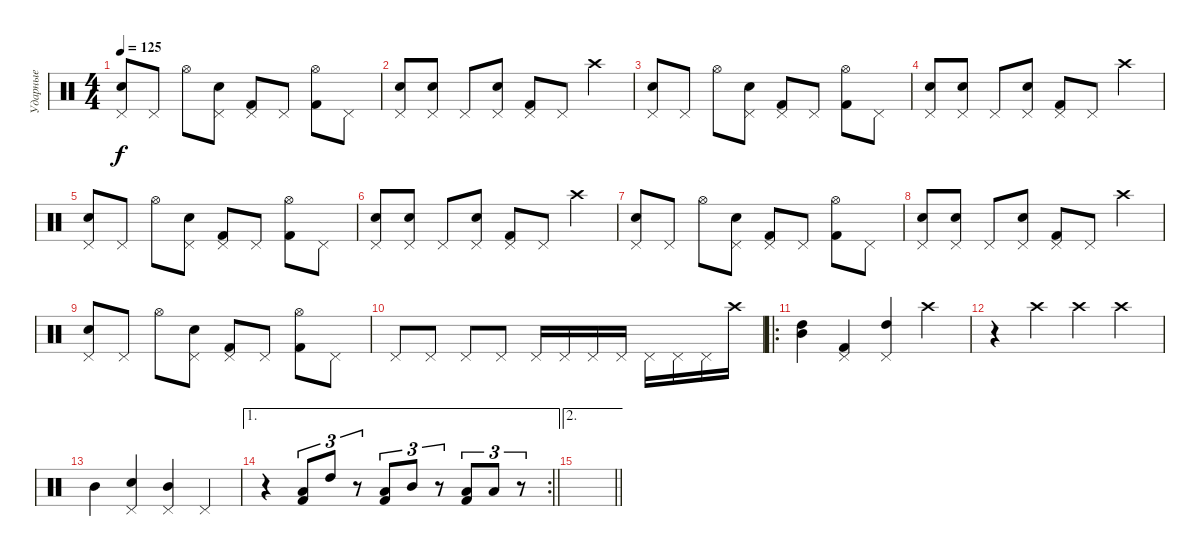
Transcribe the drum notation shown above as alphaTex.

\track ("Ударные" "Ударные") {instrument percussion}
\staff {score}
\articulation defaults
\ts (4 4)
\tempo 125
\clef neutral
\ks c
("Pedal Hi-Hat (hit)" "Snare (hit) 2").8{dy f} "Pedal Hi-Hat (hit)".8 "Hi-Hat (open)".8 ("Pedal Hi-Hat (hit)" "Snare (hit) 2").8 ("Pedal Hi-Hat (hit)" "Kick (hit) 2").8 "Pedal Hi-Hat (hit)".8 ("Hi-Hat (open)" "Kick (hit) 2").8 "Pedal Hi-Hat (hit)".8 |
("Pedal Hi-Hat (hit)" "Snare (hit) 2").8 ("Pedal Hi-Hat (hit)" "Snare (hit) 2").8 "Pedal Hi-Hat (hit)".8 ("Pedal Hi-Hat (hit)" "Snare (hit) 2").8 ("Pedal Hi-Hat (hit)" "Kick (hit) 2").8 "Pedal Hi-Hat (hit)".8 "Crash high (hit)".4 |
("Pedal Hi-Hat (hit)" "Snare (hit) 2").8 "Pedal Hi-Hat (hit)".8 "Hi-Hat (open)".8 ("Pedal Hi-Hat (hit)" "Snare (hit) 2").8 ("Pedal Hi-Hat (hit)" "Kick (hit) 2").8 "Pedal Hi-Hat (hit)".8 ("Hi-Hat (open)" "Kick (hit) 2").8 "Pedal Hi-Hat (hit)".8 |
("Pedal Hi-Hat (hit)" "Snare (hit) 2").8 ("Pedal Hi-Hat (hit)" "Snare (hit) 2").8 "Pedal Hi-Hat (hit)".8 ("Pedal Hi-Hat (hit)" "Snare (hit) 2").8 ("Pedal Hi-Hat (hit)" "Kick (hit) 2").8 "Pedal Hi-Hat (hit)".8 "Crash high (hit)".4 |
("Pedal Hi-Hat (hit)" "Snare (hit) 2").8 "Pedal Hi-Hat (hit)".8 "Hi-Hat (open)".8 ("Pedal Hi-Hat (hit)" "Snare (hit) 2").8 ("Pedal Hi-Hat (hit)" "Kick (hit) 2").8 "Pedal Hi-Hat (hit)".8 ("Hi-Hat (open)" "Kick (hit) 2").8 "Pedal Hi-Hat (hit)".8 |
("Pedal Hi-Hat (hit)" "Snare (hit) 2").8 ("Pedal Hi-Hat (hit)" "Snare (hit) 2").8 "Pedal Hi-Hat (hit)".8 ("Pedal Hi-Hat (hit)" "Snare (hit) 2").8 ("Pedal Hi-Hat (hit)" "Kick (hit) 2").8 "Pedal Hi-Hat (hit)".8 "Crash high (hit)".4 |
("Pedal Hi-Hat (hit)" "Snare (hit) 2").8 "Pedal Hi-Hat (hit)".8 "Hi-Hat (open)".8 ("Pedal Hi-Hat (hit)" "Snare (hit) 2").8 ("Pedal Hi-Hat (hit)" "Kick (hit) 2").8 "Pedal Hi-Hat (hit)".8 ("Hi-Hat (open)" "Kick (hit) 2").8 "Pedal Hi-Hat (hit)".8 |
("Pedal Hi-Hat (hit)" "Snare (hit) 2").8 ("Pedal Hi-Hat (hit)" "Snare (hit) 2").8 "Pedal Hi-Hat (hit)".8 ("Pedal Hi-Hat (hit)" "Snare (hit) 2").8 ("Pedal Hi-Hat (hit)" "Kick (hit) 2").8 "Pedal Hi-Hat (hit)".8 "Crash high (hit)".4 |
("Pedal Hi-Hat (hit)" "Snare (hit) 2").8 "Pedal Hi-Hat (hit)".8 "Hi-Hat (open)".8 ("Pedal Hi-Hat (hit)" "Snare (hit) 2").8 ("Pedal Hi-Hat (hit)" "Kick (hit) 2").8 "Pedal Hi-Hat (hit)".8 ("Hi-Hat (open)" "Kick (hit) 2").8 "Pedal Hi-Hat (hit)".8 |
"Pedal Hi-Hat (hit)".8 "Pedal Hi-Hat (hit)".8 "Pedal Hi-Hat (hit)".8 "Pedal Hi-Hat (hit)".8 "Pedal Hi-Hat (hit)".16 "Pedal Hi-Hat (hit)".16 "Pedal Hi-Hat (hit)".16 "Pedal Hi-Hat (hit)".16 "Pedal Hi-Hat (hit)".16 "Pedal Hi-Hat (hit)".16 "Pedal Hi-Hat (hit)".16 "Crash high (hit)".16 |
\ro
("High Tom (hit)" "Mid Tom (hit)").4 ("Pedal Hi-Hat (hit)" "Kick (hit) 2").4 ("Pedal Hi-Hat (hit)" "High Tom (hit)").4 "Crash high (hit)".4 |
r.4 "Crash high (hit)".4 "Crash high (hit)".4 "Crash high (hit)".4 |
"Mid Tom (hit)".4 ("Pedal Hi-Hat (hit)" "Snare (hit) 2").4 ("Pedal Hi-Hat (hit)" "Mid Tom (hit)").4 "Pedal Hi-Hat (hit)".4 |
\ae 1
\rc 2
\barLineRight lightlight
r.4 ("Low Tom (hit)" "Kick (hit) 2").8{tu (3 2)} "High Tom (hit)".8{tu (3 2)} r.8{tu (3 2)} ("Low Tom (hit)" "Kick (hit) 2").8{tu (3 2)} "Mid Tom (hit)".8{tu (3 2)} r.8{tu (3 2)} ("Low Tom (hit)" "Kick (hit) 2").8{tu (3 2)} "Low Tom (hit)".8{tu (3 2)} r.8{tu (3 2)} |
\ae 2
\barLineRight lightlight
